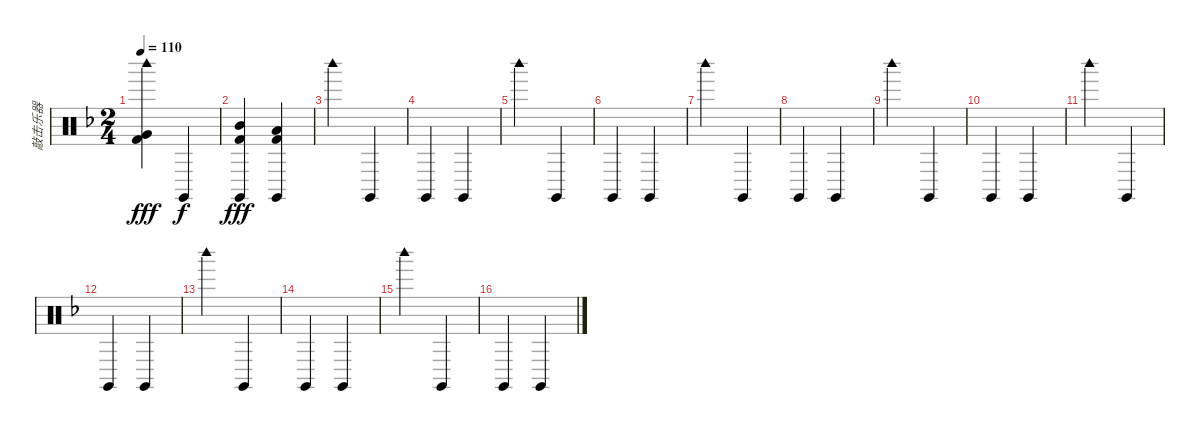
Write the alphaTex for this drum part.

\track ("敲击乐器" "敲击乐器") {instrument percussion}
\staff {score}
\articulation defaults
\ts (2 4)
\tempo 110
\clef neutral
\ks dminor
("Woodblock high (hit)" "Very Low Tom (hit)" "Kick (hit) 2").4{dy fff} "Claves (hit)".4{dy f} |
("Claves (hit)" "Mid Tom (hit)" "Kick (hit) 2").4{dy fff} ("Claves (hit)" "Low Tom (hit)" "Kick (hit) 2").4 |
"Woodblock high (hit)".4 "Claves (hit)".4 |
"Claves (hit)".4 "Claves (hit)".4 |
"Woodblock high (hit)".4 "Claves (hit)".4 |
"Claves (hit)".4 "Claves (hit)".4 |
"Woodblock high (hit)".4 "Claves (hit)".4 |
"Claves (hit)".4 "Claves (hit)".4 |
"Woodblock high (hit)".4 "Claves (hit)".4 |
"Claves (hit)".4 "Claves (hit)".4 |
"Woodblock high (hit)".4 "Claves (hit)".4 |
"Claves (hit)".4 "Claves (hit)".4 |
"Woodblock high (hit)".4 "Claves (hit)".4 |
"Claves (hit)".4 "Claves (hit)".4 |
"Woodblock high (hit)".4 "Claves (hit)".4 |
"Claves (hit)".4 "Claves (hit)".4
